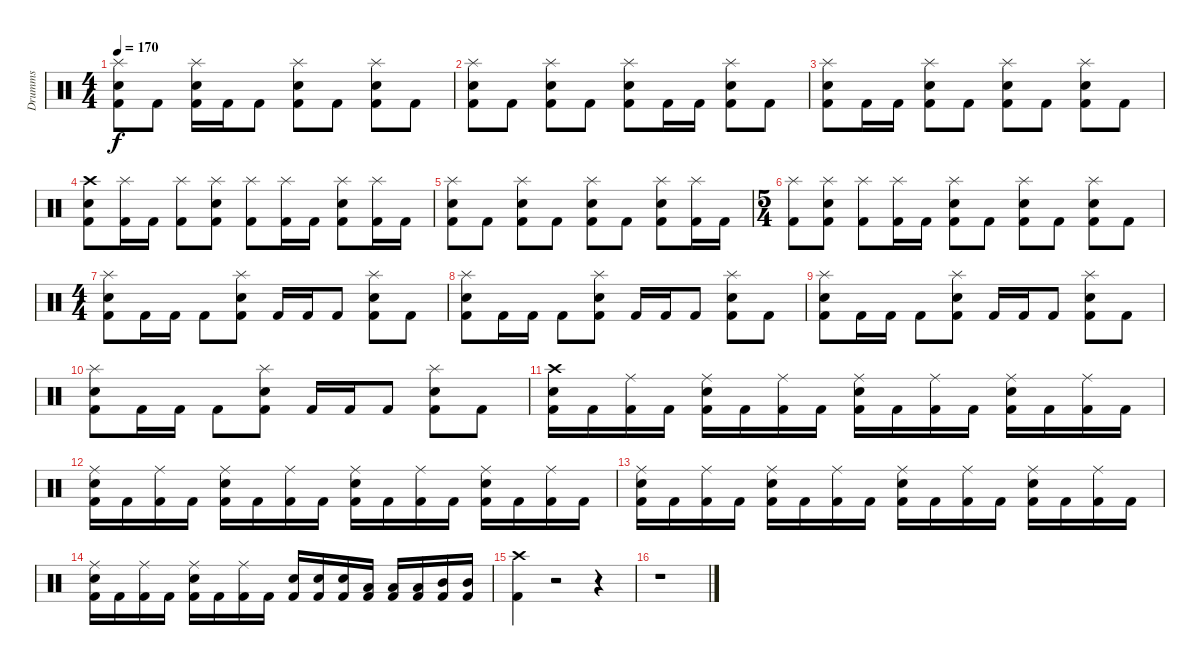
\track ("Drumms" "Drumms") {instrument percussion}
\staff {score}
\articulation defaults
\ts (4 4)
\tempo 170
\clef neutral
\ks c
("Kick (hit) 2" "Snare (hit) 2" "Splash (hit)").8{dy f} "Kick (hit) 2".8 ("Kick (hit) 2" "Snare (hit) 2" "Splash (hit)").16 "Kick (hit) 2".16 "Kick (hit) 2".8 ("Kick (hit) 2" "Snare (hit) 2" "Splash (hit)").8 "Kick (hit) 2".8 ("Kick (hit) 2" "Snare (hit) 2" "Splash (hit)").8 "Kick (hit) 2".8 |
("Kick (hit) 2" "Snare (hit) 2" "Splash (hit)").8 "Kick (hit) 2".8 ("Kick (hit) 2" "Snare (hit) 2" "Splash (hit)").8 "Kick (hit) 2".8 ("Kick (hit) 2" "Snare (hit) 2" "Splash (hit)").8 "Kick (hit) 2".16 "Kick (hit) 2".16 ("Kick (hit) 2" "Snare (hit) 2" "Splash (hit)").8 "Kick (hit) 2".8 |
("Kick (hit) 2" "Snare (hit) 2" "Splash (hit)").8 "Kick (hit) 2".16 "Kick (hit) 2".16 ("Kick (hit) 2" "Snare (hit) 2" "Splash (hit)").8 "Kick (hit) 2".8 ("Kick (hit) 2" "Snare (hit) 2" "Splash (hit)").8 "Kick (hit) 2".8 ("Kick (hit) 2" "Snare (hit) 2" "Splash (hit)").8 "Kick (hit) 2".8 |
("Kick (hit) 2" "Snare (hit) 2" "Crash high (hit)").8 ("Kick (hit) 2" "Splash (hit)").16 "Kick (hit) 2".16 ("Kick (hit) 2" "Splash (hit)").8 ("Kick (hit) 2" "Snare (hit) 2" "Splash (hit)").8 ("Kick (hit) 2" "Splash (hit)").8 ("Kick (hit) 2" "Splash (hit)").16 "Kick (hit) 2".16 ("Kick (hit) 2" "Snare (hit) 2" "Splash (hit)").8 ("Kick (hit) 2" "Splash (hit)").16 "Kick (hit) 2".16 |
("Kick (hit) 2" "Snare (hit) 2" "Splash (hit)").8 "Kick (hit) 2".8 ("Kick (hit) 2" "Snare (hit) 2" "Splash (hit)").8 "Kick (hit) 2".8 ("Kick (hit) 2" "Snare (hit) 2" "Splash (hit)").8 "Kick (hit) 2".8 ("Kick (hit) 2" "Snare (hit) 2" "Splash (hit)").8 ("Kick (hit) 2" "Splash (hit)").16 "Kick (hit) 2".16 |
\ts (5 4)
("Kick (hit) 2" "Splash (hit)").8 ("Kick (hit) 2" "Snare (hit) 2" "Splash (hit)").8 ("Kick (hit) 2" "Splash (hit)").8 ("Kick (hit) 2" "Splash (hit)").16 "Kick (hit) 2".16 ("Kick (hit) 2" "Snare (hit) 2" "Splash (hit)").8 "Kick (hit) 2".8 ("Kick (hit) 2" "Snare (hit) 2" "Splash (hit)").8 "Kick (hit) 2".8 ("Kick (hit) 2" "Snare (hit) 2" "Splash (hit)").8 "Kick (hit) 2".8 |
\ts (4 4)
("Kick (hit) 2" "Snare (hit) 2" "Splash (hit)").8 "Kick (hit) 2".16 "Kick (hit) 2".16 "Kick (hit) 2".8 ("Kick (hit) 2" "Snare (hit) 2" "Splash (hit)").8 "Kick (hit) 2".16 "Kick (hit) 2".16 "Kick (hit) 2".8 ("Kick (hit) 2" "Snare (hit) 2" "Splash (hit)").8 "Kick (hit) 2".8 |
("Kick (hit) 2" "Snare (hit) 2" "Splash (hit)").8 "Kick (hit) 2".16 "Kick (hit) 2".16 "Kick (hit) 2".8 ("Kick (hit) 2" "Snare (hit) 2" "Splash (hit)").8 "Kick (hit) 2".16 "Kick (hit) 2".16 "Kick (hit) 2".8 ("Kick (hit) 2" "Snare (hit) 2" "Splash (hit)").8 "Kick (hit) 2".8 |
("Kick (hit) 2" "Snare (hit) 2" "Splash (hit)").8 "Kick (hit) 2".16 "Kick (hit) 2".16 "Kick (hit) 2".8 ("Kick (hit) 2" "Snare (hit) 2" "Splash (hit)").8 "Kick (hit) 2".16 "Kick (hit) 2".16 "Kick (hit) 2".8 ("Kick (hit) 2" "Snare (hit) 2" "Splash (hit)").8 "Kick (hit) 2".8 |
("Kick (hit) 2" "Snare (hit) 2" "Splash (hit)").8 "Kick (hit) 2".16 "Kick (hit) 2".16 "Kick (hit) 2".8 ("Kick (hit) 2" "Snare (hit) 2" "Splash (hit)").8 "Kick (hit) 2".16 "Kick (hit) 2".16 "Kick (hit) 2".8 ("Kick (hit) 2" "Snare (hit) 2" "Splash (hit)").8 "Kick (hit) 2".8 |
("Kick (hit) 2" "Snare (hit) 2" "Crash high (hit)").16 "Kick (hit) 2".16 ("Kick (hit) 2" "Ride (middle)").16 "Kick (hit) 2".16 ("Kick (hit) 2" "Snare (hit) 2" "Ride (middle)").16 "Kick (hit) 2".16 ("Kick (hit) 2" "Ride (middle)").16 "Kick (hit) 2".16 ("Kick (hit) 2" "Snare (hit) 2" "Ride (middle)").16 "Kick (hit) 2".16 ("Kick (hit) 2" "Ride (middle)").16 "Kick (hit) 2".16 ("Kick (hit) 2" "Snare (hit) 2" "Ride (middle)").16 "Kick (hit) 2".16 ("Kick (hit) 2" "Ride (middle)").16 "Kick (hit) 2".16 |
("Kick (hit) 2" "Snare (hit) 2" "Ride (middle)").16 "Kick (hit) 2".16 ("Kick (hit) 2" "Ride (middle)").16 "Kick (hit) 2".16 ("Kick (hit) 2" "Snare (hit) 2" "Ride (middle)").16 "Kick (hit) 2".16 ("Kick (hit) 2" "Ride (middle)").16 "Kick (hit) 2".16 ("Kick (hit) 2" "Snare (hit) 2" "Ride (middle)").16 "Kick (hit) 2".16 ("Kick (hit) 2" "Ride (middle)").16 "Kick (hit) 2".16 ("Kick (hit) 2" "Snare (hit) 2" "Ride (middle)").16 "Kick (hit) 2".16 ("Kick (hit) 2" "Ride (middle)").16 "Kick (hit) 2".16 |
("Kick (hit) 2" "Snare (hit) 2" "Ride (middle)").16 "Kick (hit) 2".16 ("Kick (hit) 2" "Ride (middle)").16 "Kick (hit) 2".16 ("Kick (hit) 2" "Snare (hit) 2" "Ride (middle)").16 "Kick (hit) 2".16 ("Kick (hit) 2" "Ride (middle)").16 "Kick (hit) 2".16 ("Kick (hit) 2" "Snare (hit) 2" "Ride (middle)").16 "Kick (hit) 2".16 ("Kick (hit) 2" "Ride (middle)").16 "Kick (hit) 2".16 ("Kick (hit) 2" "Snare (hit) 2" "Ride (middle)").16 "Kick (hit) 2".16 ("Kick (hit) 2" "Ride (middle)").16 "Kick (hit) 2".16 |
("Kick (hit) 2" "Snare (hit) 2" "Ride (middle)").16 "Kick (hit) 2".16 ("Kick (hit) 2" "Ride (middle)").16 "Kick (hit) 2".16 ("Kick (hit) 2" "Snare (hit) 2" "Ride (middle)").16 "Kick (hit) 2".16 ("Kick (hit) 2" "Ride (middle)").16 "Kick (hit) 2".16 ("Kick (hit) 2" "Snare (hit) 2").16 ("Kick (hit) 2" "Snare (hit) 2").16 ("Kick (hit) 2" "Snare (hit) 2").16 ("Kick (hit) 2" "Low Tom (hit)").16 ("Kick (hit) 2" "Low Tom (hit)").16 ("Kick (hit) 2" "Low Tom (hit)").16 ("Kick (hit) 2" "Mid Tom (hit)").16 ("Kick (hit) 2" "Mid Tom (hit)").16 |
("Kick (hit) 2" "Crash high (hit)").4 r.2 r.4 |
r.1
